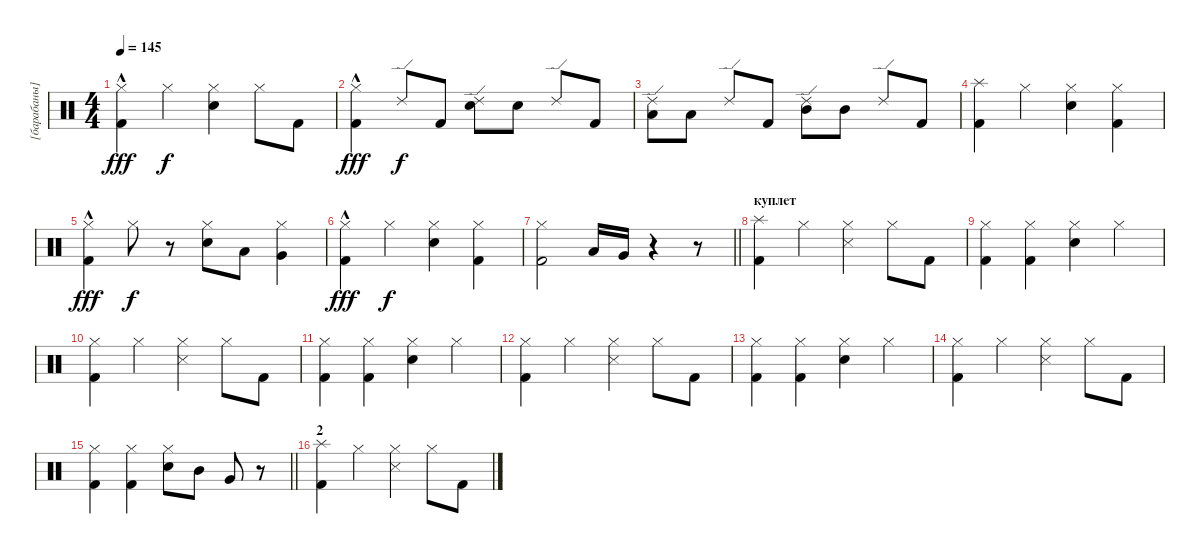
\track ("[барабаны]" "[барабаны]") {instrument percussion}
\staff
\articulation defaults
\ts (4 4)
\tempo 145
\clef neutral
\ks c
("Hi-Hat (closed)"{hac} "Kick (hit) 2").4{dy fff} "Hi-Hat (closed)".4{dy f} ("Hi-Hat (closed)" "Electric Snare (hit)").4 "Hi-Hat (closed)".8 "Kick (hit) 2".8 |
("Hi-Hat (closed)"{hac} "Kick (hit) 2").4{dy fff} "Ride (edge) 2".8{dy f} "Kick (hit) 2".8 ("Ride (edge) 2" "Electric Snare (hit)").8 "Electric Snare (hit)".8 "Ride (edge) 2".8 "Kick (hit) 2".8 |
("Ride (edge) 2" "Low Tom (hit)").8 "Low Tom (hit)".8 "Ride (edge) 2".8 "Kick (hit) 2".8 ("Ride (edge) 2" "Mid Tom (hit)").8 "Mid Tom (hit)".8 "Ride (edge) 2".8 "Kick (hit) 2".8 |
("Splash (hit)" "Kick (hit) 2").4 "Hi-Hat (closed)".4 ("Hi-Hat (closed)" "Electric Snare (hit)").4 ("Hi-Hat (closed)" "Kick (hit) 2").4 |
("Hi-Hat (closed)"{hac} "Kick (hit) 2").4{dy fff} "Hi-Hat (closed)".8{dy f} r.8 ("Hi-Hat (closed)" "Electric Snare (hit)").8 "Low Tom (hit)".8 ("Hi-Hat (closed)" "Very Low Tom (hit)").4 |
("Hi-Hat (closed)"{hac} "Kick (hit) 2").4{dy fff} "Hi-Hat (closed)".4{dy f} ("Hi-Hat (closed)" "Electric Snare (hit)").4 ("Hi-Hat (closed)" "Kick (hit) 2").4 |
\barLineRight lightlight
("Hi-Hat (closed)" "Kick (hit) 2").2 "Low Tom (hit)".16 "Very Low Tom (hit)".16 r.4 r.8 |
\section ("" "куплет")
("Splash (hit)" "Kick (hit) 2").4 "Hi-Hat (closed)".4 ("Hi-Hat (closed)" "Snare (side stick) 3").4 "Hi-Hat (closed)".8 "Kick (hit) 2".8 |
("Hi-Hat (closed)" "Kick (hit) 2").4 ("Hi-Hat (closed)" "Kick (hit) 2").4 ("Hi-Hat (closed)" "Electric Snare (hit)").4 "Hi-Hat (closed)".4 |
("Hi-Hat (closed)" "Kick (hit) 2").4 "Hi-Hat (closed)".4 ("Hi-Hat (closed)" "Snare (side stick) 3").4 "Hi-Hat (closed)".8 "Kick (hit) 2".8 |
("Hi-Hat (closed)" "Kick (hit) 2").4 ("Hi-Hat (closed)" "Kick (hit) 2").4 ("Hi-Hat (closed)" "Electric Snare (hit)").4 "Hi-Hat (closed)".4 |
("Hi-Hat (closed)" "Kick (hit) 2").4 "Hi-Hat (closed)".4 ("Hi-Hat (closed)" "Snare (side stick) 3").4 "Hi-Hat (closed)".8 "Kick (hit) 2".8 |
("Hi-Hat (closed)" "Kick (hit) 2").4 ("Hi-Hat (closed)" "Kick (hit) 2").4 ("Hi-Hat (closed)" "Electric Snare (hit)").4 "Hi-Hat (closed)".4 |
("Hi-Hat (closed)" "Kick (hit) 2").4 "Hi-Hat (closed)".4 ("Hi-Hat (closed)" "Snare (side stick) 3").4 "Hi-Hat (closed)".8 "Kick (hit) 2".8 |
\barLineRight lightlight
("Hi-Hat (closed)" "Kick (hit) 2").4 ("Hi-Hat (closed)" "Kick (hit) 2").4 ("Hi-Hat (closed)" "Electric Snare (hit)").8 "Mid Tom (hit)".8 "Very Low Tom (hit)".8 r.8 |
\section ("" "2")
("Splash (hit)" "Kick (hit) 2").4 "Hi-Hat (closed)".4 ("Hi-Hat (closed)" "Snare (side stick) 3").4 "Hi-Hat (closed)".8 "Kick (hit) 2".8
